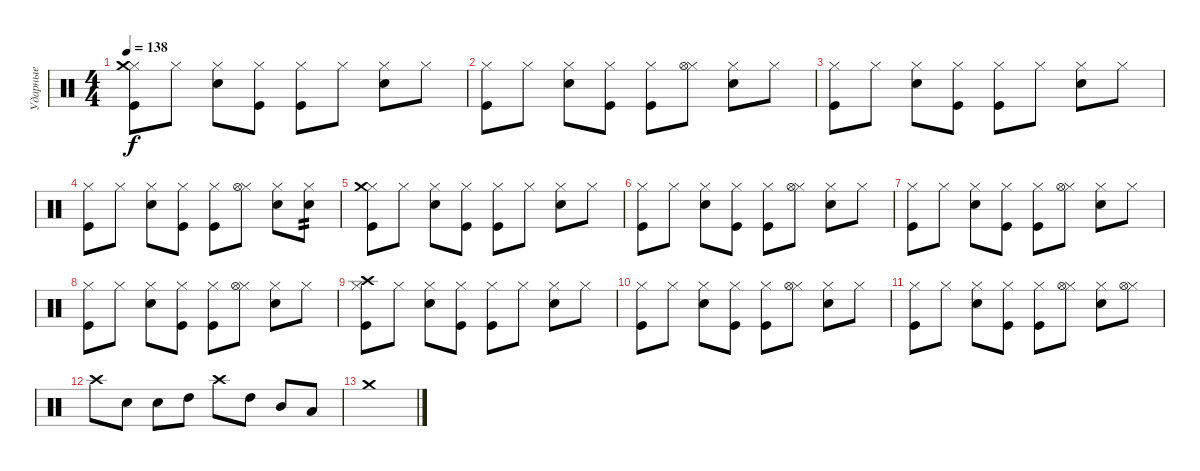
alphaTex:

\track ("Ударные" "Ударные") {instrument percussion}
\staff {score}
\articulation defaults
\ts (4 4)
\tempo 138
\clef neutral
\ks c
("Hi-Hat (closed)" "Kick (hit)" "Crash medium (hit)").8{dy f} "Hi-Hat (closed)".8 ("Hi-Hat (closed)" "Snare (hit) 2").8 ("Hi-Hat (closed)" "Kick (hit)").8 ("Hi-Hat (closed)" "Kick (hit)").8 "Hi-Hat (closed)".8 ("Hi-Hat (closed)" "Snare (hit) 2").8 "Hi-Hat (closed)".8 |
("Hi-Hat (closed)" "Kick (hit)").8 "Hi-Hat (closed)".8 ("Hi-Hat (closed)" "Snare (hit) 2").8 ("Hi-Hat (closed)" "Kick (hit)").8 ("Hi-Hat (closed)" "Kick (hit)").8 ("Hi-Hat (closed)" "Hi-Hat (open)").8 ("Hi-Hat (closed)" "Snare (hit) 2").8 "Hi-Hat (closed)".8 |
("Hi-Hat (closed)" "Kick (hit)").8 "Hi-Hat (closed)".8 ("Hi-Hat (closed)" "Snare (hit) 2").8 ("Hi-Hat (closed)" "Kick (hit)").8 ("Hi-Hat (closed)" "Kick (hit)").8 "Hi-Hat (closed)".8 ("Hi-Hat (closed)" "Snare (hit) 2").8 "Hi-Hat (closed)".8 |
("Hi-Hat (closed)" "Kick (hit)").8 "Hi-Hat (closed)".8 ("Hi-Hat (closed)" "Snare (hit) 2").8 ("Hi-Hat (closed)" "Kick (hit)").8 ("Hi-Hat (closed)" "Kick (hit)").8 ("Hi-Hat (closed)" "Hi-Hat (open)").8 ("Hi-Hat (closed)" "Snare (hit) 2").8 ("Hi-Hat (closed)" "Snare (hit) 2").8{tp 2} |
("Hi-Hat (closed)" "Kick (hit)" "Crash medium (hit)").8 "Hi-Hat (closed)".8 ("Hi-Hat (closed)" "Snare (hit) 2").8 ("Hi-Hat (closed)" "Kick (hit)").8 ("Hi-Hat (closed)" "Kick (hit)").8 "Hi-Hat (closed)".8 ("Hi-Hat (closed)" "Snare (hit) 2").8 "Hi-Hat (closed)".8 |
("Hi-Hat (closed)" "Kick (hit)").8 "Hi-Hat (closed)".8 ("Hi-Hat (closed)" "Snare (hit) 2").8 ("Hi-Hat (closed)" "Kick (hit)").8 ("Hi-Hat (closed)" "Kick (hit)").8 ("Hi-Hat (closed)" "Hi-Hat (open)").8 ("Hi-Hat (closed)" "Snare (hit) 2").8 "Hi-Hat (closed)".8 |
("Hi-Hat (closed)" "Kick (hit)").8 "Hi-Hat (closed)".8 ("Hi-Hat (closed)" "Snare (hit) 2").8 ("Hi-Hat (closed)" "Kick (hit)").8 ("Hi-Hat (closed)" "Kick (hit)").8 ("Hi-Hat (closed)" "Hi-Hat (open)").8 ("Hi-Hat (closed)" "Snare (hit) 2").8 "Hi-Hat (closed)".8 |
("Hi-Hat (closed)" "Kick (hit)").8 "Hi-Hat (closed)".8 ("Hi-Hat (closed)" "Snare (hit) 2").8 ("Hi-Hat (closed)" "Kick (hit)").8 ("Hi-Hat (closed)" "Kick (hit)").8 ("Hi-Hat (closed)" "Hi-Hat (open)").8 ("Hi-Hat (closed)" "Snare (hit) 2").8 "Hi-Hat (closed)".8 |
("Hi-Hat (closed)" "Kick (hit)" "Crash high (hit)").8 "Hi-Hat (closed)".8 ("Hi-Hat (closed)" "Snare (hit) 2").8 ("Hi-Hat (closed)" "Kick (hit)").8 ("Hi-Hat (closed)" "Kick (hit)").8 "Hi-Hat (closed)".8 ("Hi-Hat (closed)" "Snare (hit) 2").8 "Hi-Hat (closed)".8 |
("Hi-Hat (closed)" "Kick (hit)").8 "Hi-Hat (closed)".8 ("Hi-Hat (closed)" "Snare (hit) 2").8 ("Hi-Hat (closed)" "Kick (hit)").8 ("Hi-Hat (closed)" "Kick (hit)").8 ("Hi-Hat (closed)" "Hi-Hat (open)").8 ("Hi-Hat (closed)" "Snare (hit) 2").8 "Hi-Hat (closed)".8 |
("Hi-Hat (closed)" "Kick (hit)").8 "Hi-Hat (closed)".8 ("Hi-Hat (closed)" "Snare (hit) 2").8 ("Hi-Hat (closed)" "Kick (hit)").8 ("Hi-Hat (closed)" "Kick (hit)").8 ("Hi-Hat (closed)" "Hi-Hat (open)").8 ("Hi-Hat (closed)" "Snare (hit) 2").8 ("Hi-Hat (closed)" "Hi-Hat (open)").8 |
"Crash high (hit)".8 "Snare (hit) 2".8 "Snare (hit) 2".8 "High Tom (hit)".8 "Crash high (hit)".8 "High Tom (hit)".8 "Mid Tom (hit)".8 "Low Tom (hit)".8 |
"Crash medium (hit)".1
